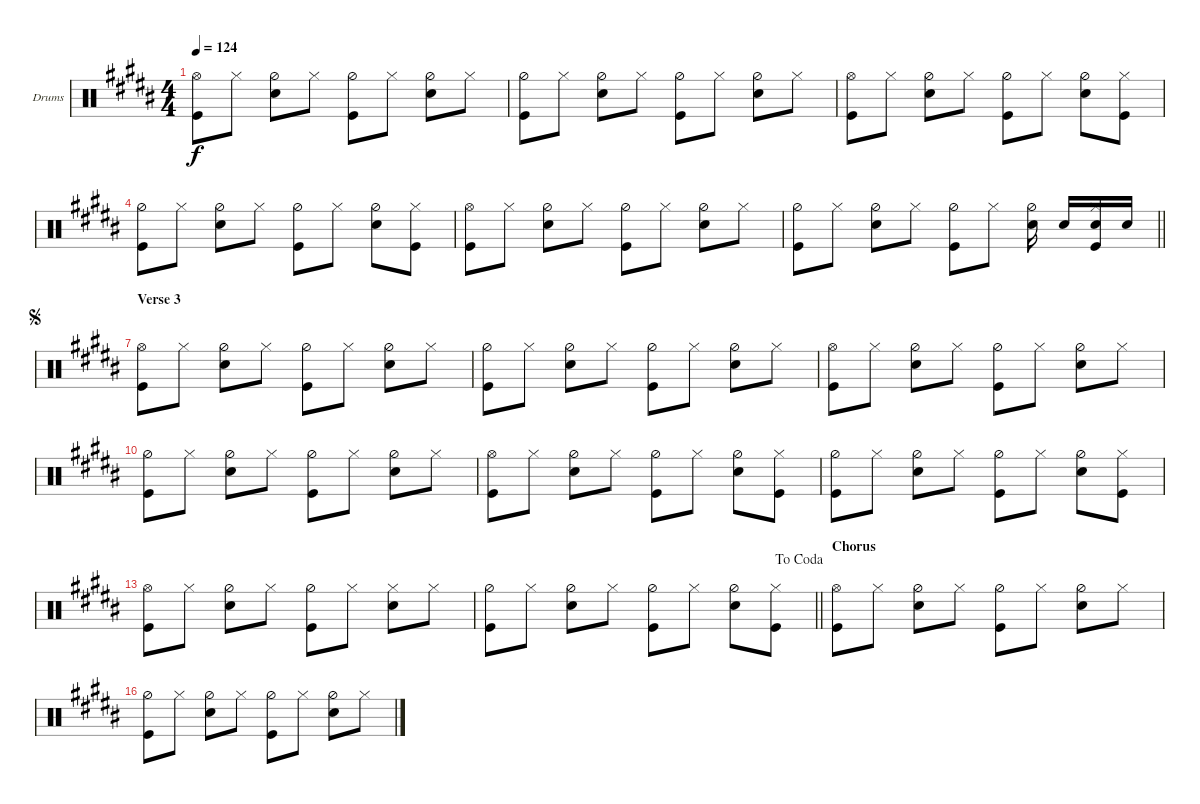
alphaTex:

\bracketExtendMode nobrackets
\firstSystemTrackNameOrientation horizontal
\otherSystemsTrackNameOrientation horizontal
\defaultBarNumberDisplay FirstOfSystem
\track ("Drumkit" "Drums") {instrument percussion}
\staff {score}
\articulation defaults
\ts (4 4)
\tempo 124
\clef neutral
\ks g#minor
("Kick (hit)" "Hi-Hat (open)").8{dy f} "Hi-Hat (closed)".8 ("Hi-Hat (half)" "Snare (hit) 2").8 "Hi-Hat (closed)".8 ("Hi-Hat (half)" "Kick (hit)").8 "Hi-Hat (closed)".8 ("Snare (hit) 2" "Hi-Hat (half)").8 "Hi-Hat (closed)".8 |
("Kick (hit)" "Hi-Hat (half)").8 "Hi-Hat (closed)".8 ("Hi-Hat (half)" "Snare (hit) 2").8 "Hi-Hat (closed)".8 ("Hi-Hat (half)" "Kick (hit)").8 "Hi-Hat (closed)".8 ("Hi-Hat (half)" "Snare (hit) 2").8 "Hi-Hat (closed)".8 |
\ks b
("Kick (hit)" "Hi-Hat (open)").8 "Hi-Hat (closed)".8 ("Hi-Hat (half)" "Snare (hit) 2").8 "Hi-Hat (closed)".8 ("Hi-Hat (half)" "Kick (hit)").8 "Hi-Hat (closed)".8 ("Hi-Hat (half)" "Snare (hit) 2").8 ("Hi-Hat (closed)" "Kick (hit)").8 |
\ks g#minor
("Kick (hit)" "Hi-Hat (half)").8 "Hi-Hat (closed)".8 ("Hi-Hat (half)" "Snare (hit) 2").8 "Hi-Hat (closed)".8 ("Hi-Hat (half)" "Kick (hit)").8 "Hi-Hat (closed)".8 ("Hi-Hat (half)" "Snare (hit) 2").8 ("Hi-Hat (closed)" "Kick (hit)").8 |
("Kick (hit)" "Hi-Hat (open)").8 "Hi-Hat (closed)".8 ("Hi-Hat (half)" "Snare (hit) 2").8 "Hi-Hat (closed)".8 ("Hi-Hat (half)" "Kick (hit)").8 "Hi-Hat (closed)".8 ("Hi-Hat (half)" "Snare (hit) 2").8 "Hi-Hat (closed)".8 |
\barLineRight lightlight
("Kick (hit)" "Hi-Hat (half)").8 "Hi-Hat (closed)".8 ("Hi-Hat (half)" "Snare (hit) 2").8 "Hi-Hat (closed)".8 ("Hi-Hat (half)" "Kick (hit)").8 "Hi-Hat (closed)".8 ("Snare (hit) 2" "Hi-Hat (half)").16{beam split} "Snare (hit) 2".16 ("Hi-Hat (closed)" "Snare (hit) 2" "Kick (hit)").16 "Snare (hit) 2".16 |
\section ("" "Verse 3")
\jump segno
\ks b
("Kick (hit)" "Hi-Hat (open)").8 "Hi-Hat (closed)".8 ("Hi-Hat (half)" "Snare (hit) 2").8 "Hi-Hat (closed)".8 ("Hi-Hat (half)" "Kick (hit)").8 "Hi-Hat (closed)".8 ("Hi-Hat (half)" "Snare (hit) 2").8 "Hi-Hat (closed)".8 |
\ks g#minor
("Kick (hit)" "Hi-Hat (half)").8 "Hi-Hat (closed)".8 ("Hi-Hat (half)" "Snare (hit) 2").8 "Hi-Hat (closed)".8 ("Hi-Hat (half)" "Kick (hit)").8 "Hi-Hat (closed)".8 ("Hi-Hat (half)" "Snare (hit) 2").8 "Hi-Hat (closed)".8 |
("Kick (hit)" "Hi-Hat (open)").8 "Hi-Hat (closed)".8 ("Hi-Hat (half)" "Snare (hit) 2").8 "Hi-Hat (closed)".8 ("Hi-Hat (half)" "Kick (hit)").8 "Hi-Hat (closed)".8 ("Hi-Hat (half)" "Snare (hit) 2").8 "Hi-Hat (closed)".8 |
("Kick (hit)" "Hi-Hat (half)").8 "Hi-Hat (closed)".8 ("Hi-Hat (half)" "Snare (hit) 2").8 "Hi-Hat (closed)".8 ("Hi-Hat (half)" "Kick (hit)").8 "Hi-Hat (closed)".8 ("Hi-Hat (half)" "Snare (hit) 2").8 "Hi-Hat (closed)".8 |
\ks b
("Kick (hit)" "Hi-Hat (open)").8 "Hi-Hat (closed)".8 ("Hi-Hat (half)" "Snare (hit) 2").8 "Hi-Hat (closed)".8 ("Hi-Hat (half)" "Kick (hit)").8 "Hi-Hat (closed)".8 ("Hi-Hat (half)" "Snare (hit) 2").8 ("Hi-Hat (closed)" "Kick (hit)").8 |
\ks g#minor
("Kick (hit)" "Hi-Hat (half)").8 "Hi-Hat (closed)".8 ("Hi-Hat (half)" "Snare (hit) 2").8 "Hi-Hat (closed)".8 ("Hi-Hat (half)" "Kick (hit)").8 "Hi-Hat (closed)".8 ("Hi-Hat (half)" "Snare (hit) 2").8 ("Hi-Hat (closed)" "Kick (hit)").8 |
("Kick (hit)" "Hi-Hat (open)").8 "Hi-Hat (closed)".8 ("Hi-Hat (half)" "Snare (hit) 2").8 "Hi-Hat (closed)".8 ("Hi-Hat (half)" "Kick (hit)").8 "Hi-Hat (closed)".8 ("Hi-Hat (closed)" "Snare (hit) 2").8 "Hi-Hat (closed)".8 |
\jump dacoda
\barLineRight lightlight
("Kick (hit)" "Hi-Hat (half)").8 "Hi-Hat (closed)".8 ("Hi-Hat (half)" "Snare (hit) 2").8 "Hi-Hat (closed)".8 ("Hi-Hat (half)" "Kick (hit)").8 "Hi-Hat (closed)".8 ("Hi-Hat (half)" "Snare (hit) 2").8 ("Hi-Hat (closed)" "Kick (hit)").8 |
\section ("" "Chorus")
\ks b
("Kick (hit)" "Hi-Hat (open)").8 "Hi-Hat (closed)".8 ("Hi-Hat (half)" "Snare (hit) 2").8 "Hi-Hat (closed)".8 ("Hi-Hat (half)" "Kick (hit)").8 "Hi-Hat (closed)".8 ("Hi-Hat (half)" "Snare (hit) 2").8 "Hi-Hat (closed)".8 |
\ks g#minor
("Kick (hit)" "Hi-Hat (half)").8 "Hi-Hat (closed)".8 ("Hi-Hat (half)" "Snare (hit) 2").8 "Hi-Hat (closed)".8 ("Hi-Hat (half)" "Kick (hit)").8 "Hi-Hat (closed)".8 ("Hi-Hat (half)" "Snare (hit) 2").8 "Hi-Hat (closed)".8
